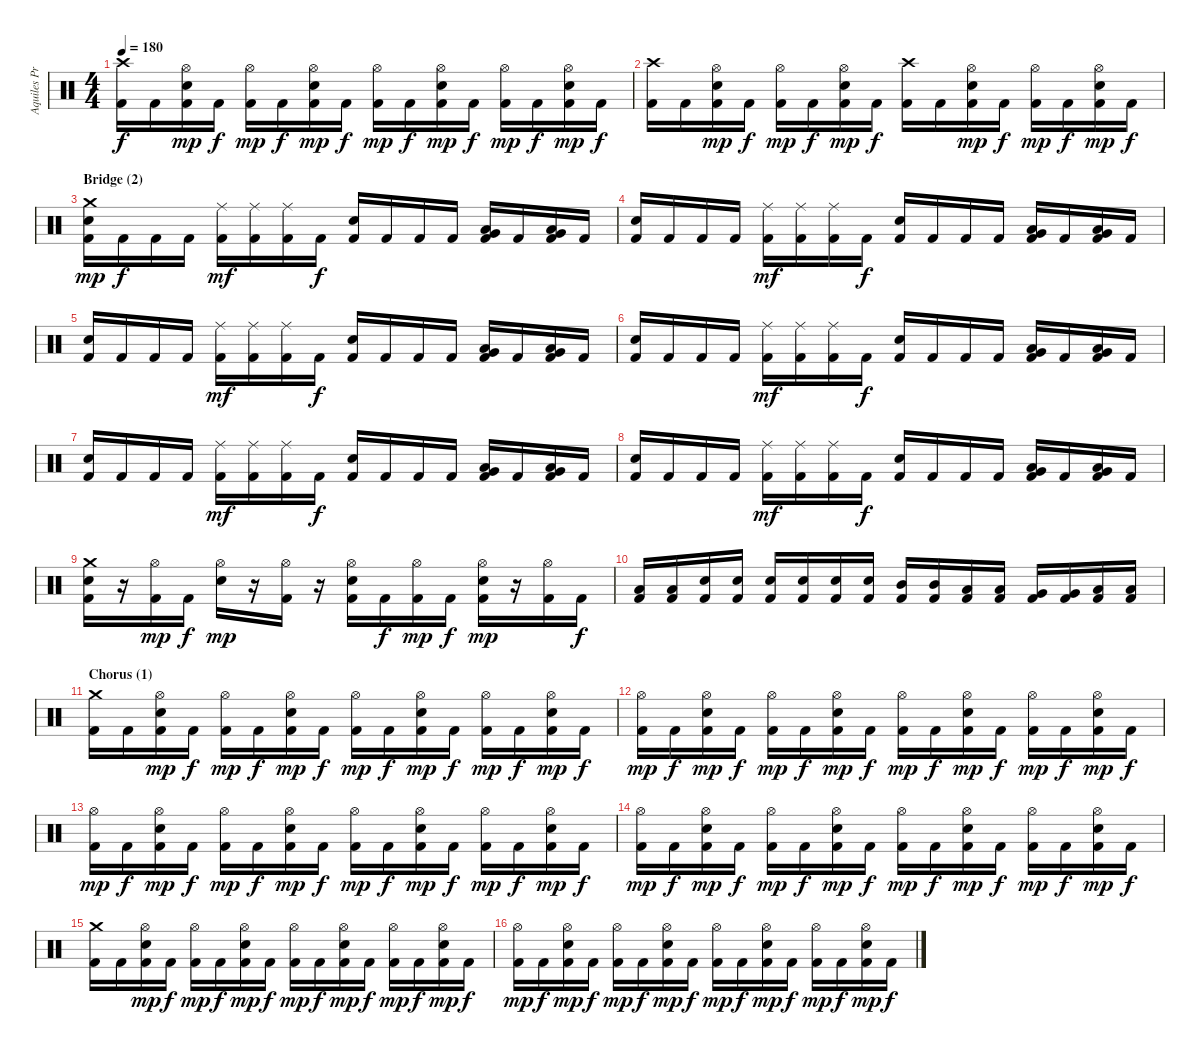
\track ("Aquiles Priester" "Aquiles Pr") {instrument percussion}
\staff {score}
\articulation defaults
\ts (4 4)
\tempo 180
\clef neutral
\ks c
("Crash high (hit)" "Kick (hit) 2").16{dy f} "Kick (hit) 2".16 ("Hi-Hat (open)" "Snare (hit) 2" "Kick (hit) 2").16{dy mp} "Kick (hit) 2".16{dy f} ("Hi-Hat (open)" "Kick (hit) 2").16{dy mp} "Kick (hit) 2".16{dy f} ("Hi-Hat (open)" "Snare (hit) 2" "Kick (hit) 2").16{dy mp} "Kick (hit) 2".16{dy f} ("Hi-Hat (open)" "Kick (hit) 2").16{dy mp} "Kick (hit) 2".16{dy f} ("Hi-Hat (open)" "Snare (hit) 2" "Kick (hit) 2").16{dy mp} "Kick (hit) 2".16{dy f} ("Hi-Hat (open)" "Kick (hit) 2").16{dy mp} "Kick (hit) 2".16{dy f} ("Hi-Hat (open)" "Snare (hit) 2" "Kick (hit) 2").16{dy mp} "Kick (hit) 2".16{dy f} |
("Crash high (hit)" "Kick (hit) 2").16 "Kick (hit) 2".16 ("Hi-Hat (open)" "Snare (hit) 2" "Kick (hit) 2").16{dy mp} "Kick (hit) 2".16{dy f} ("Hi-Hat (open)" "Kick (hit) 2").16{dy mp} "Kick (hit) 2".16{dy f} ("Hi-Hat (open)" "Snare (hit) 2" "Kick (hit) 2").16{dy mp} "Kick (hit) 2".16{dy f} ("Crash high (hit)" "Kick (hit) 2").16 "Kick (hit) 2".16 ("Hi-Hat (open)" "Snare (hit) 2" "Kick (hit) 2").16{dy mp} "Kick (hit) 2".16{dy f} ("Hi-Hat (open)" "Kick (hit) 2").16{dy mp} "Kick (hit) 2".16{dy f} ("Hi-Hat (open)" "Snare (hit) 2" "Kick (hit) 2").16{dy mp} "Kick (hit) 2".16{dy f} |
\section ("" "Bridge (2)")
("Crash medium (hit)" "Snare (hit) 2" "Kick (hit) 2").16{dy mp} "Kick (hit) 2".16{dy f} "Kick (hit) 2".16 "Kick (hit) 2".16 ("Ride (middle)" "Kick (hit) 2").16{dy mf} ("Ride (middle)" "Kick (hit) 2").16 ("Ride (middle)" "Kick (hit) 2").16 "Kick (hit) 2".16{dy f} ("Snare (hit) 2" "Kick (hit) 2").16 "Kick (hit) 2".16 "Kick (hit) 2".16 "Kick (hit) 2".16 ("Low Tom (hit)" "Very Low Tom (hit)" "Kick (hit) 2").16 "Kick (hit) 2".16 ("Low Tom (hit)" "Very Low Tom (hit)" "Kick (hit) 2").16 "Kick (hit) 2".16 |
("Snare (hit) 2" "Kick (hit) 2").16 "Kick (hit) 2".16 "Kick (hit) 2".16 "Kick (hit) 2".16 ("Ride (middle)" "Kick (hit) 2").16{dy mf} ("Ride (middle)" "Kick (hit) 2").16 ("Ride (middle)" "Kick (hit) 2").16 "Kick (hit) 2".16{dy f} ("Snare (hit) 2" "Kick (hit) 2").16 "Kick (hit) 2".16 "Kick (hit) 2".16 "Kick (hit) 2".16 ("Low Tom (hit)" "Very Low Tom (hit)" "Kick (hit) 2").16 "Kick (hit) 2".16 ("Low Tom (hit)" "Very Low Tom (hit)" "Kick (hit) 2").16 "Kick (hit) 2".16 |
("Snare (hit) 2" "Kick (hit) 2").16 "Kick (hit) 2".16 "Kick (hit) 2".16 "Kick (hit) 2".16 ("Ride (middle)" "Kick (hit) 2").16{dy mf} ("Ride (middle)" "Kick (hit) 2").16 ("Ride (middle)" "Kick (hit) 2").16 "Kick (hit) 2".16{dy f} ("Snare (hit) 2" "Kick (hit) 2").16 "Kick (hit) 2".16 "Kick (hit) 2".16 "Kick (hit) 2".16 ("Low Tom (hit)" "Very Low Tom (hit)" "Kick (hit) 2").16 "Kick (hit) 2".16 ("Low Tom (hit)" "Very Low Tom (hit)" "Kick (hit) 2").16 "Kick (hit) 2".16 |
("Snare (hit) 2" "Kick (hit) 2").16 "Kick (hit) 2".16 "Kick (hit) 2".16 "Kick (hit) 2".16 ("Ride (middle)" "Kick (hit) 2").16{dy mf} ("Ride (middle)" "Kick (hit) 2").16 ("Ride (middle)" "Kick (hit) 2").16 "Kick (hit) 2".16{dy f} ("Snare (hit) 2" "Kick (hit) 2").16 "Kick (hit) 2".16 "Kick (hit) 2".16 "Kick (hit) 2".16 ("Low Tom (hit)" "Very Low Tom (hit)" "Kick (hit) 2").16 "Kick (hit) 2".16 ("Low Tom (hit)" "Very Low Tom (hit)" "Kick (hit) 2").16 "Kick (hit) 2".16 |
("Snare (hit) 2" "Kick (hit) 2").16 "Kick (hit) 2".16 "Kick (hit) 2".16 "Kick (hit) 2".16 ("Ride (middle)" "Kick (hit) 2").16{dy mf} ("Ride (middle)" "Kick (hit) 2").16 ("Ride (middle)" "Kick (hit) 2").16 "Kick (hit) 2".16{dy f} ("Snare (hit) 2" "Kick (hit) 2").16 "Kick (hit) 2".16 "Kick (hit) 2".16 "Kick (hit) 2".16 ("Low Tom (hit)" "Very Low Tom (hit)" "Kick (hit) 2").16 "Kick (hit) 2".16 ("Low Tom (hit)" "Very Low Tom (hit)" "Kick (hit) 2").16 "Kick (hit) 2".16 |
("Snare (hit) 2" "Kick (hit) 2").16 "Kick (hit) 2".16 "Kick (hit) 2".16 "Kick (hit) 2".16 ("Ride (middle)" "Kick (hit) 2").16{dy mf} ("Ride (middle)" "Kick (hit) 2").16 ("Ride (middle)" "Kick (hit) 2").16 "Kick (hit) 2".16{dy f} ("Snare (hit) 2" "Kick (hit) 2").16 "Kick (hit) 2".16 "Kick (hit) 2".16 "Kick (hit) 2".16 ("Low Tom (hit)" "Very Low Tom (hit)" "Kick (hit) 2").16 "Kick (hit) 2".16 ("Low Tom (hit)" "Very Low Tom (hit)" "Kick (hit) 2").16 "Kick (hit) 2".16 |
("Crash medium (hit)" "Snare (hit) 2" "Kick (hit) 2").16 r.16 ("Hi-Hat (open)" "Kick (hit) 2").16{dy mp} "Kick (hit) 2".16{dy f} ("Hi-Hat (open)" "Snare (hit) 2").16{dy mp} r.16 ("Hi-Hat (open)" "Kick (hit) 2").16 r.16 ("Hi-Hat (open)" "Snare (hit) 2" "Kick (hit) 2").16 "Kick (hit) 2".16{dy f} ("Hi-Hat (open)" "Kick (hit) 2").16{dy mp} "Kick (hit) 2".16{dy f} ("Hi-Hat (open)" "Snare (hit) 2" "Kick (hit) 2").16{dy mp} r.16 ("Hi-Hat (open)" "Kick (hit) 2").16 "Kick (hit) 2".16{dy f} |
("Low Tom (hit)" "Kick (hit) 2").16 ("Low Tom (hit)" "Kick (hit) 2").16 ("Snare (hit) 2" "Kick (hit) 2").16 ("Snare (hit) 2" "Kick (hit) 2").16 ("Snare (hit) 2" "Kick (hit) 2").16 ("Snare (hit) 2" "Kick (hit) 2").16 ("Snare (hit) 2" "Kick (hit) 2").16 ("Snare (hit) 2" "Kick (hit) 2").16 ("Mid Tom (hit)" "Kick (hit) 2").16 ("Mid Tom (hit)" "Kick (hit) 2").16 ("Low Tom (hit)" "Kick (hit) 2").16 ("Low Tom (hit)" "Kick (hit) 2").16 ("Very Low Tom (hit)" "Kick (hit) 2").16 ("Very Low Tom (hit)" "Kick (hit) 2").16 ("Low Floor Tom (hit)" "Kick (hit) 2").16 ("Low Floor Tom (hit)" "Kick (hit) 2").16 |
\section ("" "Chorus (1)")
("Crash medium (hit)" "Kick (hit) 2").16 "Kick (hit) 2".16 ("Hi-Hat (open)" "Snare (hit) 2" "Kick (hit) 2").16{dy mp} "Kick (hit) 2".16{dy f} ("Hi-Hat (open)" "Kick (hit) 2").16{dy mp} "Kick (hit) 2".16{dy f} ("Hi-Hat (open)" "Snare (hit) 2" "Kick (hit) 2").16{dy mp} "Kick (hit) 2".16{dy f} ("Hi-Hat (open)" "Kick (hit) 2").16{dy mp} "Kick (hit) 2".16{dy f} ("Hi-Hat (open)" "Snare (hit) 2" "Kick (hit) 2").16{dy mp} "Kick (hit) 2".16{dy f} ("Hi-Hat (open)" "Kick (hit) 2").16{dy mp} "Kick (hit) 2".16{dy f} ("Hi-Hat (open)" "Snare (hit) 2" "Kick (hit) 2").16{dy mp} "Kick (hit) 2".16{dy f} |
("Hi-Hat (open)" "Kick (hit) 2").16{dy mp} "Kick (hit) 2".16{dy f} ("Hi-Hat (open)" "Snare (hit) 2" "Kick (hit) 2").16{dy mp} "Kick (hit) 2".16{dy f} ("Hi-Hat (open)" "Kick (hit) 2").16{dy mp} "Kick (hit) 2".16{dy f} ("Hi-Hat (open)" "Snare (hit) 2" "Kick (hit) 2").16{dy mp} "Kick (hit) 2".16{dy f} ("Hi-Hat (open)" "Kick (hit) 2").16{dy mp} "Kick (hit) 2".16{dy f} ("Hi-Hat (open)" "Snare (hit) 2" "Kick (hit) 2").16{dy mp} "Kick (hit) 2".16{dy f} ("Hi-Hat (open)" "Kick (hit) 2").16{dy mp} "Kick (hit) 2".16{dy f} ("Hi-Hat (open)" "Snare (hit) 2" "Kick (hit) 2").16{dy mp} "Kick (hit) 2".16{dy f} |
("Hi-Hat (open)" "Kick (hit) 2").16{dy mp} "Kick (hit) 2".16{dy f} ("Hi-Hat (open)" "Snare (hit) 2" "Kick (hit) 2").16{dy mp} "Kick (hit) 2".16{dy f} ("Hi-Hat (open)" "Kick (hit) 2").16{dy mp} "Kick (hit) 2".16{dy f} ("Hi-Hat (open)" "Snare (hit) 2" "Kick (hit) 2").16{dy mp} "Kick (hit) 2".16{dy f} ("Hi-Hat (open)" "Kick (hit) 2").16{dy mp} "Kick (hit) 2".16{dy f} ("Hi-Hat (open)" "Snare (hit) 2" "Kick (hit) 2").16{dy mp} "Kick (hit) 2".16{dy f} ("Hi-Hat (open)" "Kick (hit) 2").16{dy mp} "Kick (hit) 2".16{dy f} ("Hi-Hat (open)" "Snare (hit) 2" "Kick (hit) 2").16{dy mp} "Kick (hit) 2".16{dy f} |
("Hi-Hat (open)" "Kick (hit) 2").16{dy mp} "Kick (hit) 2".16{dy f} ("Hi-Hat (open)" "Snare (hit) 2" "Kick (hit) 2").16{dy mp} "Kick (hit) 2".16{dy f} ("Hi-Hat (open)" "Kick (hit) 2").16{dy mp} "Kick (hit) 2".16{dy f} ("Hi-Hat (open)" "Snare (hit) 2" "Kick (hit) 2").16{dy mp} "Kick (hit) 2".16{dy f} ("Hi-Hat (open)" "Kick (hit) 2").16{dy mp} "Kick (hit) 2".16{dy f} ("Hi-Hat (open)" "Snare (hit) 2" "Kick (hit) 2").16{dy mp} "Kick (hit) 2".16{dy f} ("Hi-Hat (open)" "Kick (hit) 2").16{dy mp} "Kick (hit) 2".16{dy f} ("Hi-Hat (open)" "Snare (hit) 2" "Kick (hit) 2").16{dy mp} "Kick (hit) 2".16{dy f} |
("Crash medium (hit)" "Kick (hit) 2").16 "Kick (hit) 2".16 ("Hi-Hat (open)" "Snare (hit) 2" "Kick (hit) 2").16{dy mp} "Kick (hit) 2".16{dy f} ("Hi-Hat (open)" "Kick (hit) 2").16{dy mp} "Kick (hit) 2".16{dy f} ("Hi-Hat (open)" "Snare (hit) 2" "Kick (hit) 2").16{dy mp} "Kick (hit) 2".16{dy f} ("Hi-Hat (open)" "Kick (hit) 2").16{dy mp} "Kick (hit) 2".16{dy f} ("Hi-Hat (open)" "Snare (hit) 2" "Kick (hit) 2").16{dy mp} "Kick (hit) 2".16{dy f} ("Hi-Hat (open)" "Kick (hit) 2").16{dy mp} "Kick (hit) 2".16{dy f} ("Hi-Hat (open)" "Snare (hit) 2" "Kick (hit) 2").16{dy mp} "Kick (hit) 2".16{dy f} |
("Hi-Hat (open)" "Kick (hit) 2").16{dy mp} "Kick (hit) 2".16{dy f} ("Hi-Hat (open)" "Snare (hit) 2" "Kick (hit) 2").16{dy mp} "Kick (hit) 2".16{dy f} ("Hi-Hat (open)" "Kick (hit) 2").16{dy mp} "Kick (hit) 2".16{dy f} ("Hi-Hat (open)" "Snare (hit) 2" "Kick (hit) 2").16{dy mp} "Kick (hit) 2".16{dy f} ("Hi-Hat (open)" "Kick (hit) 2").16{dy mp} "Kick (hit) 2".16{dy f} ("Hi-Hat (open)" "Snare (hit) 2" "Kick (hit) 2").16{dy mp} "Kick (hit) 2".16{dy f} ("Hi-Hat (open)" "Kick (hit) 2").16{dy mp} "Kick (hit) 2".16{dy f} ("Hi-Hat (open)" "Snare (hit) 2" "Kick (hit) 2").16{dy mp} "Kick (hit) 2".16{dy f}
